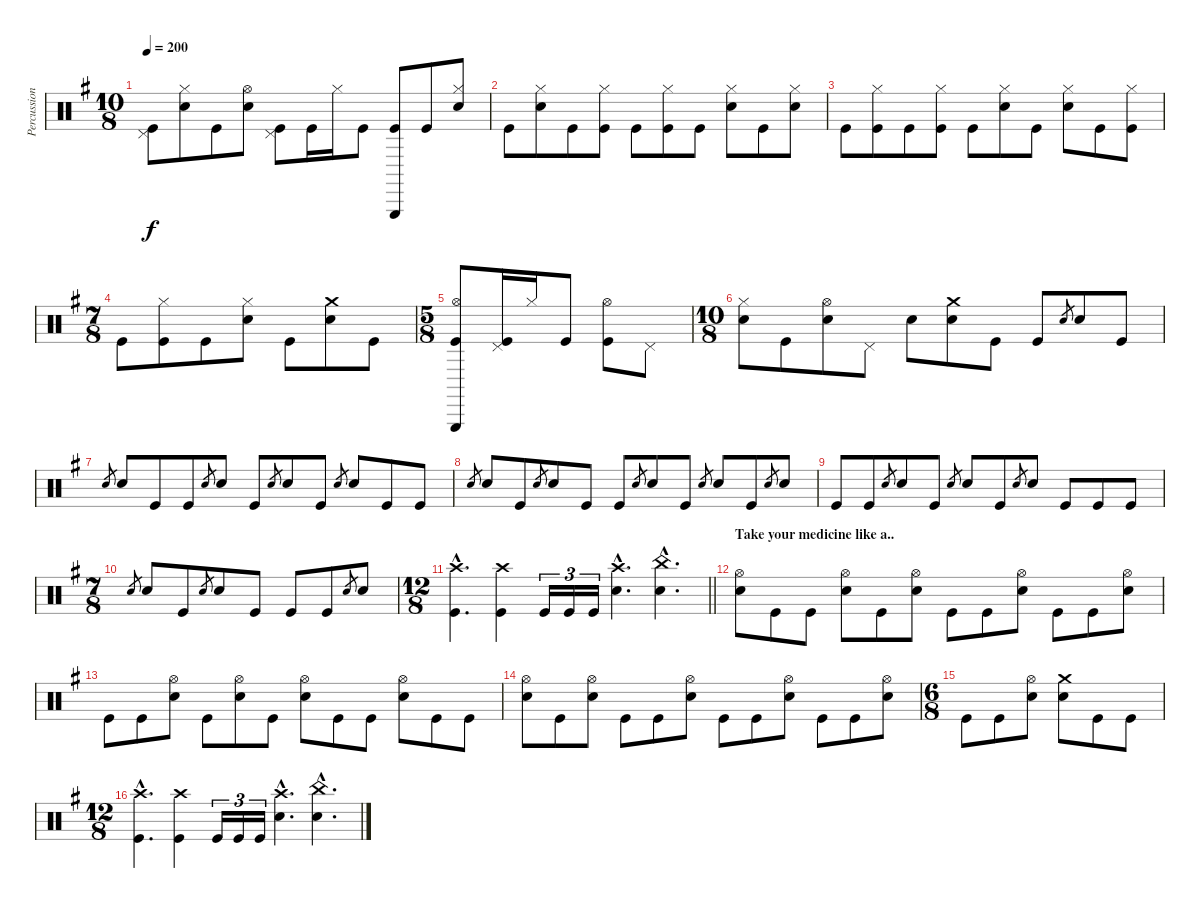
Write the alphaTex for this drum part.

\track ("Percussion" "Percussion") {instrument percussion}
\staff {score}
\articulation defaults
\ts (10 8)
\tempo 200
\clef neutral
\ks g
("Pedal Hi-Hat (hit)" "Kick (hit)").8{dy f} ("Hi-Hat (closed)" "Electric Snare (hit)").8 "Kick (hit)".8 ("Hi-Hat (open)" "Electric Snare (hit)").8 ("Pedal Hi-Hat (hit)" "Kick (hit)").8 "Kick (hit)".16 "Hi-Hat (closed)".16 "Kick (hit)".8 ("Triangle (hit)" "Kick (hit)").8 "Kick (hit)".8 ("Hi-Hat (closed)" "Electric Snare (hit)").8 |
"Kick (hit)".8 ("Hi-Hat (closed)" "Electric Snare (hit)").8 "Kick (hit)".8 ("Hi-Hat (closed)" "Kick (hit)").8 "Kick (hit)".8 ("Hi-Hat (closed)" "Kick (hit)").8 "Kick (hit)".8 ("Hi-Hat (closed)" "Electric Snare (hit)").8 "Kick (hit)".8 ("Hi-Hat (closed)" "Electric Snare (hit)").8 |
"Kick (hit)".8 ("Hi-Hat (closed)" "Kick (hit)").8 "Kick (hit)".8 ("Hi-Hat (closed)" "Kick (hit)").8 "Kick (hit)".8 ("Hi-Hat (closed)" "Electric Snare (hit)").8 "Kick (hit)".8 ("Hi-Hat (closed)" "Electric Snare (hit)").8 "Kick (hit)".8 ("Hi-Hat (closed)" "Kick (hit)").8 |
\ts (7 8)
"Kick (hit)".8 ("Hi-Hat (closed)" "Kick (hit)").8 "Kick (hit)".8 ("Hi-Hat (closed)" "Electric Snare (hit)").8 "Kick (hit)".8 ("Crash medium (hit)" "Electric Snare (hit)").8 "Kick (hit)".8 |
\ts (5 8)
("Hi-Hat (open)" "Triangle (hit)" "Kick (hit)").8 ("Pedal Hi-Hat (hit)" "Kick (hit)").16 "Hi-Hat (closed)".16 "Kick (hit)".8 ("Hi-Hat (open)" "Kick (hit)").8 "Pedal Hi-Hat (hit)".8 |
\ts (10 8)
("Hi-Hat (closed)" "Electric Snare (hit)").8 "Kick (hit)".8 ("Hi-Hat (open)" "Electric Snare (hit)").8 "Pedal Hi-Hat (hit)".8 "Electric Snare (hit)".8 ("Crash medium (hit)" "Electric Snare (hit)").8 "Kick (hit)".8 "Kick (hit)".8 "Electric Snare (hit)".8{gr} "Electric Snare (hit)".8 "Kick (hit)".8 |
"Electric Snare (hit)".8{gr} "Electric Snare (hit)".8 "Kick (hit)".8 "Kick (hit)".8 "Electric Snare (hit)".8{gr} "Electric Snare (hit)".8 "Kick (hit)".8 "Electric Snare (hit)".8{gr} "Electric Snare (hit)".8 "Kick (hit)".8 "Electric Snare (hit)".8{gr} "Electric Snare (hit)".8 "Kick (hit)".8 "Kick (hit)".8 |
"Electric Snare (hit)".8{gr} "Electric Snare (hit)".8 "Kick (hit)".8 "Electric Snare (hit)".8{gr} "Electric Snare (hit)".8 "Kick (hit)".8 "Kick (hit)".8 "Electric Snare (hit)".8{gr} "Electric Snare (hit)".8 "Kick (hit)".8 "Electric Snare (hit)".8{gr} "Electric Snare (hit)".8 "Kick (hit)".8 "Electric Snare (hit)".8{gr} "Electric Snare (hit)".8 |
"Kick (hit)".8 "Kick (hit)".8 "Electric Snare (hit)".8{gr} "Electric Snare (hit)".8 "Kick (hit)".8 "Electric Snare (hit)".8{gr} "Electric Snare (hit)".8 "Kick (hit)".8 "Electric Snare (hit)".8{gr} "Electric Snare (hit)".8 "Kick (hit)".8 "Kick (hit)".8 "Kick (hit)".8 |
\ts (7 8)
"Electric Snare (hit)".8{gr} "Electric Snare (hit)".8 "Kick (hit)".8 "Electric Snare (hit)".8{gr} "Electric Snare (hit)".8 "Kick (hit)".8 "Kick (hit)".8 "Kick (hit)".8 "Electric Snare (hit)".8{gr} "Electric Snare (hit)".8 |
\ts (12 8)
\barLineRight lightlight
("Crash high (hit)"{hac} "Kick (hit)"{hac}).4{d} ("Crash high (hit)" "Kick (hit)").4 "Kick (hit)".16{tu (3 2)} "Kick (hit)".16{tu (3 2)} "Kick (hit)".16{tu (3 2)} ("Crash high (hit)"{hac} "Electric Snare (hit)"{hac}).4{d} ("China (hit)"{hac} "Electric Snare (hit)"{hac}).4{d} |
\section ("" "Take your medicine like a..")
("Hi-Hat (open)" "Electric Snare (hit)").8 "Kick (hit)".8 "Kick (hit)".8 ("Hi-Hat (open)" "Electric Snare (hit)").8 "Kick (hit)".8 ("Hi-Hat (open)" "Electric Snare (hit)").8 "Kick (hit)".8 "Kick (hit)".8 ("Hi-Hat (open)" "Electric Snare (hit)").8 "Kick (hit)".8 "Kick (hit)".8 ("Hi-Hat (open)" "Electric Snare (hit)").8 |
"Kick (hit)".8 "Kick (hit)".8 ("Hi-Hat (open)" "Electric Snare (hit)").8 "Kick (hit)".8 ("Hi-Hat (open)" "Electric Snare (hit)").8 "Kick (hit)".8 ("Hi-Hat (open)" "Electric Snare (hit)").8 "Kick (hit)".8 "Kick (hit)".8 ("Hi-Hat (open)" "Electric Snare (hit)").8 "Kick (hit)".8 "Kick (hit)".8 |
("Hi-Hat (open)" "Electric Snare (hit)").8 "Kick (hit)".8 ("Hi-Hat (open)" "Electric Snare (hit)").8 "Kick (hit)".8 "Kick (hit)".8 ("Hi-Hat (open)" "Electric Snare (hit)").8 "Kick (hit)".8 "Kick (hit)".8 ("Hi-Hat (open)" "Electric Snare (hit)").8 "Kick (hit)".8 "Kick (hit)".8 ("Hi-Hat (open)" "Electric Snare (hit)").8 |
\ts (6 8)
"Kick (hit)".8 "Kick (hit)".8 ("Hi-Hat (open)" "Electric Snare (hit)").8 ("Crash medium (hit)" "Electric Snare (hit)").8 "Kick (hit)".8 "Kick (hit)".8 |
\ts (12 8)
("Crash high (hit)"{hac} "Kick (hit)"{hac}).4{d} ("Crash high (hit)" "Kick (hit)").4 "Kick (hit)".16{tu (3 2)} "Kick (hit)".16{tu (3 2)} "Kick (hit)".16{tu (3 2)} ("Crash high (hit)"{hac} "Electric Snare (hit)"{hac}).4{d} ("China (hit)"{hac} "Electric Snare (hit)"{hac}).4{d}
